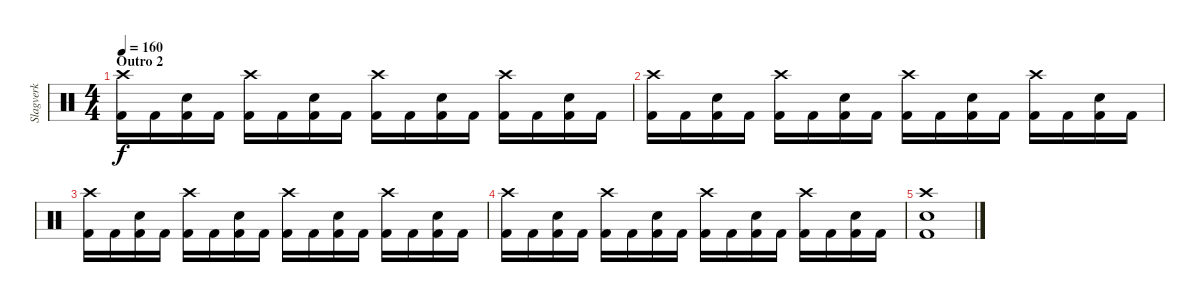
\track ("Slagverk" "Slagverk") {instrument percussion}
\staff {score}
\articulation defaults
\ts (4 4)
\section ("" "Outro 2")
\tempo 160
\clef neutral
\ks c
("Crash high (hit)" "Kick (hit) 2").16{dy f} "Kick (hit) 2".16 ("Snare (hit) 2" "Kick (hit) 2").16 "Kick (hit) 2".16 ("Crash high (hit)" "Kick (hit) 2").16 "Kick (hit) 2".16 ("Snare (hit) 2" "Kick (hit) 2").16 "Kick (hit) 2".16 ("Crash high (hit)" "Kick (hit) 2").16 "Kick (hit) 2".16 ("Snare (hit) 2" "Kick (hit) 2").16 "Kick (hit) 2".16 ("Crash high (hit)" "Kick (hit) 2").16 "Kick (hit) 2".16 ("Snare (hit) 2" "Kick (hit) 2").16 "Kick (hit) 2".16 |
("Crash high (hit)" "Kick (hit) 2").16 "Kick (hit) 2".16 ("Snare (hit) 2" "Kick (hit) 2").16 "Kick (hit) 2".16 ("Crash high (hit)" "Kick (hit) 2").16 "Kick (hit) 2".16 ("Snare (hit) 2" "Kick (hit) 2").16 "Kick (hit) 2".16 ("Crash high (hit)" "Kick (hit) 2").16 "Kick (hit) 2".16 ("Snare (hit) 2" "Kick (hit) 2").16 "Kick (hit) 2".16 ("Crash high (hit)" "Kick (hit) 2").16 "Kick (hit) 2".16 ("Snare (hit) 2" "Kick (hit) 2").16 "Kick (hit) 2".16 |
("Crash high (hit)" "Kick (hit) 2").16 "Kick (hit) 2".16 ("Snare (hit) 2" "Kick (hit) 2").16 "Kick (hit) 2".16 ("Crash high (hit)" "Kick (hit) 2").16 "Kick (hit) 2".16 ("Snare (hit) 2" "Kick (hit) 2").16 "Kick (hit) 2".16 ("Crash high (hit)" "Kick (hit) 2").16 "Kick (hit) 2".16 ("Snare (hit) 2" "Kick (hit) 2").16 "Kick (hit) 2".16 ("Crash high (hit)" "Kick (hit) 2").16 "Kick (hit) 2".16 ("Snare (hit) 2" "Kick (hit) 2").16 "Kick (hit) 2".16 |
("Crash high (hit)" "Kick (hit) 2").16 "Kick (hit) 2".16 ("Snare (hit) 2" "Kick (hit) 2").16 "Kick (hit) 2".16 ("Crash high (hit)" "Kick (hit) 2").16 "Kick (hit) 2".16 ("Snare (hit) 2" "Kick (hit) 2").16 "Kick (hit) 2".16 ("Crash high (hit)" "Kick (hit) 2").16 "Kick (hit) 2".16 ("Snare (hit) 2" "Kick (hit) 2").16 "Kick (hit) 2".16 ("Crash high (hit)" "Kick (hit) 2").16 "Kick (hit) 2".16 ("Snare (hit) 2" "Kick (hit) 2").16 "Kick (hit) 2".16 |
("Crash high (hit)" "Snare (hit) 2" "Kick (hit) 2").1
